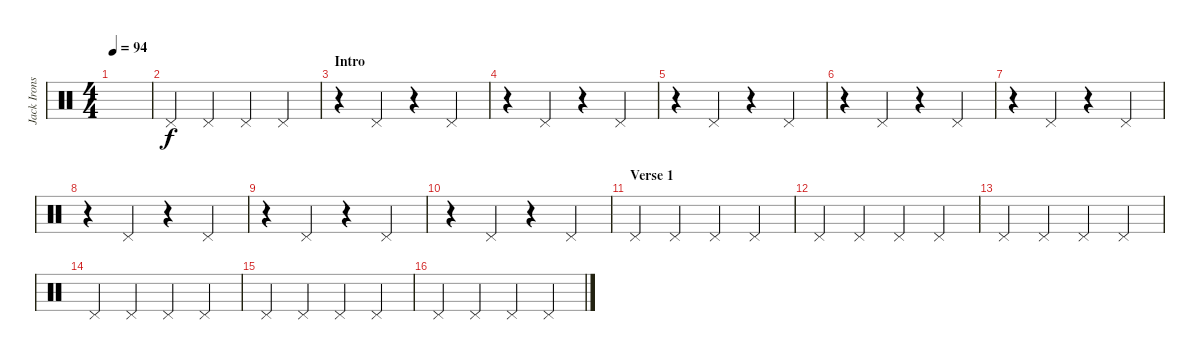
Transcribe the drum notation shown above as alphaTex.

\track ("Jack Irons" "Jack Irons") {instrument percussion}
\staff {score}
\articulation defaults
\ts (4 4)
\tempo 94
\clef neutral
\ks c
|
"Pedal Hi-Hat (hit)".4 "Pedal Hi-Hat (hit)".4 "Pedal Hi-Hat (hit)".4 "Pedal Hi-Hat (hit)".4 |
\section ("" "Intro")
r.4 "Pedal Hi-Hat (hit)".4 r.4 "Pedal Hi-Hat (hit)".4 |
r.4 "Pedal Hi-Hat (hit)".4 r.4 "Pedal Hi-Hat (hit)".4 |
r.4 "Pedal Hi-Hat (hit)".4 r.4 "Pedal Hi-Hat (hit)".4 |
r.4 "Pedal Hi-Hat (hit)".4 r.4 "Pedal Hi-Hat (hit)".4 |
r.4 "Pedal Hi-Hat (hit)".4 r.4 "Pedal Hi-Hat (hit)".4 |
r.4 "Pedal Hi-Hat (hit)".4 r.4 "Pedal Hi-Hat (hit)".4 |
r.4 "Pedal Hi-Hat (hit)".4 r.4 "Pedal Hi-Hat (hit)".4 |
r.4 "Pedal Hi-Hat (hit)".4 r.4 "Pedal Hi-Hat (hit)".4 |
\section ("" "Verse 1")
"Pedal Hi-Hat (hit)".4 "Pedal Hi-Hat (hit)".4 "Pedal Hi-Hat (hit)".4 "Pedal Hi-Hat (hit)".4 |
"Pedal Hi-Hat (hit)".4 "Pedal Hi-Hat (hit)".4 "Pedal Hi-Hat (hit)".4 "Pedal Hi-Hat (hit)".4 |
"Pedal Hi-Hat (hit)".4 "Pedal Hi-Hat (hit)".4 "Pedal Hi-Hat (hit)".4 "Pedal Hi-Hat (hit)".4 |
"Pedal Hi-Hat (hit)".4 "Pedal Hi-Hat (hit)".4 "Pedal Hi-Hat (hit)".4 "Pedal Hi-Hat (hit)".4 |
"Pedal Hi-Hat (hit)".4 "Pedal Hi-Hat (hit)".4 "Pedal Hi-Hat (hit)".4 "Pedal Hi-Hat (hit)".4 |
"Pedal Hi-Hat (hit)".4 "Pedal Hi-Hat (hit)".4 "Pedal Hi-Hat (hit)".4 "Pedal Hi-Hat (hit)".4
